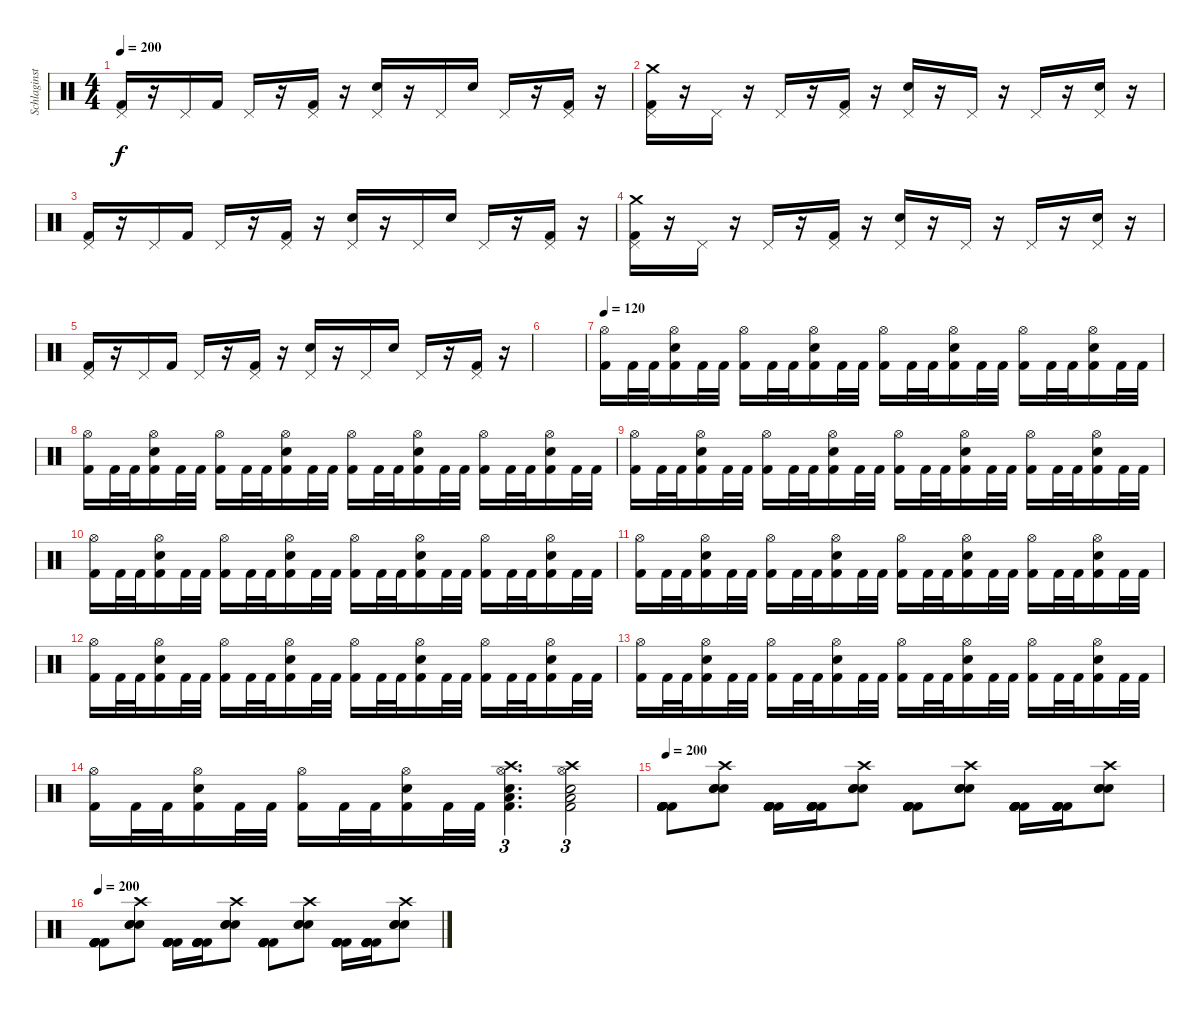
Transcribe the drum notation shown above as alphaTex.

\track ("Schlaginstrumente - Auswahl" "Schlaginst") {instrument percussion}
\staff {score}
\articulation defaults
\ts (4 4)
\tempo 200
\clef neutral
\ks c
("Pedal Hi-Hat (hit)" "Kick (hit) 2").16{dy f} r.16 "Pedal Hi-Hat (hit)".16 "Kick (hit) 2".16 "Pedal Hi-Hat (hit)".16 r.16 ("Pedal Hi-Hat (hit)" "Kick (hit) 2").16 r.16 ("Pedal Hi-Hat (hit)" "Electric Snare (hit)").16 r.16 "Pedal Hi-Hat (hit)".16 "Electric Snare (hit)".16 "Pedal Hi-Hat (hit)".16 r.16 ("Pedal Hi-Hat (hit)" "Kick (hit) 2").16 r.16 |
("Crash medium (hit)" "Pedal Hi-Hat (hit)" "Kick (hit) 2").16 r.16 "Pedal Hi-Hat (hit)".16 r.16 "Pedal Hi-Hat (hit)".16 r.16 ("Pedal Hi-Hat (hit)" "Kick (hit) 2").16 r.16 ("Pedal Hi-Hat (hit)" "Electric Snare (hit)").16 r.16 "Pedal Hi-Hat (hit)".16 r.16 "Pedal Hi-Hat (hit)".16 r.16 ("Pedal Hi-Hat (hit)" "Electric Snare (hit)").16 r.16 |
("Pedal Hi-Hat (hit)" "Kick (hit) 2").16 r.16 "Pedal Hi-Hat (hit)".16 "Kick (hit) 2".16 "Pedal Hi-Hat (hit)".16 r.16 ("Pedal Hi-Hat (hit)" "Kick (hit) 2").16 r.16 ("Pedal Hi-Hat (hit)" "Electric Snare (hit)").16 r.16 "Pedal Hi-Hat (hit)".16 "Electric Snare (hit)".16 "Pedal Hi-Hat (hit)".16 r.16 ("Pedal Hi-Hat (hit)" "Kick (hit) 2").16 r.16 |
("Crash medium (hit)" "Pedal Hi-Hat (hit)" "Kick (hit) 2").16 r.16 "Pedal Hi-Hat (hit)".16 r.16 "Pedal Hi-Hat (hit)".16 r.16 ("Pedal Hi-Hat (hit)" "Kick (hit) 2").16 r.16 ("Pedal Hi-Hat (hit)" "Electric Snare (hit)").16 r.16 "Pedal Hi-Hat (hit)".16 r.16 "Pedal Hi-Hat (hit)".16 r.16 ("Pedal Hi-Hat (hit)" "Electric Snare (hit)").16 r.16 |
("Pedal Hi-Hat (hit)" "Kick (hit) 2").16 r.16 "Pedal Hi-Hat (hit)".16 "Kick (hit) 2".16 "Pedal Hi-Hat (hit)".16 r.16 ("Pedal Hi-Hat (hit)" "Kick (hit) 2").16 r.16 ("Pedal Hi-Hat (hit)" "Electric Snare (hit)").16 r.16 "Pedal Hi-Hat (hit)".16 "Electric Snare (hit)".16 "Pedal Hi-Hat (hit)".16 r.16 ("Pedal Hi-Hat (hit)" "Kick (hit) 2").16 r.16 |
|
\tempo 120
("Hi-Hat (open)" "Kick (hit) 2").16 "Kick (hit) 2".32 "Kick (hit) 2".32 ("Hi-Hat (open)" "Electric Snare (hit)" "Kick (hit) 2").16 "Kick (hit) 2".32 "Kick (hit) 2".32 ("Hi-Hat (open)" "Kick (hit) 2").16 "Kick (hit) 2".32 "Kick (hit) 2".32 ("Hi-Hat (open)" "Electric Snare (hit)" "Kick (hit) 2").16 "Kick (hit) 2".32 "Kick (hit) 2".32 ("Hi-Hat (open)" "Kick (hit) 2").16 "Kick (hit) 2".32 "Kick (hit) 2".32 ("Hi-Hat (open)" "Electric Snare (hit)" "Kick (hit) 2").16 "Kick (hit) 2".32 "Kick (hit) 2".32 ("Hi-Hat (open)" "Kick (hit) 2").16 "Kick (hit) 2".32 "Kick (hit) 2".32 ("Hi-Hat (open)" "Electric Snare (hit)" "Kick (hit) 2").16 "Kick (hit) 2".32 "Kick (hit) 2".32 |
("Hi-Hat (open)" "Kick (hit) 2").16 "Kick (hit) 2".32 "Kick (hit) 2".32 ("Hi-Hat (open)" "Electric Snare (hit)" "Kick (hit) 2").16 "Kick (hit) 2".32 "Kick (hit) 2".32 ("Hi-Hat (open)" "Kick (hit) 2").16 "Kick (hit) 2".32 "Kick (hit) 2".32 ("Hi-Hat (open)" "Electric Snare (hit)" "Kick (hit) 2").16 "Kick (hit) 2".32 "Kick (hit) 2".32 ("Hi-Hat (open)" "Kick (hit) 2").16 "Kick (hit) 2".32 "Kick (hit) 2".32 ("Hi-Hat (open)" "Electric Snare (hit)" "Kick (hit) 2").16 "Kick (hit) 2".32 "Kick (hit) 2".32 ("Hi-Hat (open)" "Kick (hit) 2").16 "Kick (hit) 2".32 "Kick (hit) 2".32 ("Hi-Hat (open)" "Electric Snare (hit)" "Kick (hit) 2").16 "Kick (hit) 2".32 "Kick (hit) 2".32 |
("Hi-Hat (open)" "Kick (hit) 2").16 "Kick (hit) 2".32 "Kick (hit) 2".32 ("Hi-Hat (open)" "Electric Snare (hit)" "Kick (hit) 2").16 "Kick (hit) 2".32 "Kick (hit) 2".32 ("Hi-Hat (open)" "Kick (hit) 2").16 "Kick (hit) 2".32 "Kick (hit) 2".32 ("Hi-Hat (open)" "Electric Snare (hit)" "Kick (hit) 2").16 "Kick (hit) 2".32 "Kick (hit) 2".32 ("Hi-Hat (open)" "Kick (hit) 2").16 "Kick (hit) 2".32 "Kick (hit) 2".32 ("Hi-Hat (open)" "Electric Snare (hit)" "Kick (hit) 2").16 "Kick (hit) 2".32 "Kick (hit) 2".32 ("Hi-Hat (open)" "Kick (hit) 2").16 "Kick (hit) 2".32 "Kick (hit) 2".32 ("Hi-Hat (open)" "Electric Snare (hit)" "Kick (hit) 2").16 "Kick (hit) 2".32 "Kick (hit) 2".32 |
("Hi-Hat (open)" "Kick (hit) 2").16 "Kick (hit) 2".32 "Kick (hit) 2".32 ("Hi-Hat (open)" "Electric Snare (hit)" "Kick (hit) 2").16 "Kick (hit) 2".32 "Kick (hit) 2".32 ("Hi-Hat (open)" "Kick (hit) 2").16 "Kick (hit) 2".32 "Kick (hit) 2".32 ("Hi-Hat (open)" "Electric Snare (hit)" "Kick (hit) 2").16 "Kick (hit) 2".32 "Kick (hit) 2".32 ("Hi-Hat (open)" "Kick (hit) 2").16 "Kick (hit) 2".32 "Kick (hit) 2".32 ("Hi-Hat (open)" "Electric Snare (hit)" "Kick (hit) 2").16 "Kick (hit) 2".32 "Kick (hit) 2".32 ("Hi-Hat (open)" "Kick (hit) 2").16 "Kick (hit) 2".32 "Kick (hit) 2".32 ("Hi-Hat (open)" "Electric Snare (hit)" "Kick (hit) 2").16 "Kick (hit) 2".32 "Kick (hit) 2".32 |
("Hi-Hat (open)" "Kick (hit) 2").16 "Kick (hit) 2".32 "Kick (hit) 2".32 ("Hi-Hat (open)" "Electric Snare (hit)" "Kick (hit) 2").16 "Kick (hit) 2".32 "Kick (hit) 2".32 ("Hi-Hat (open)" "Kick (hit) 2").16 "Kick (hit) 2".32 "Kick (hit) 2".32 ("Hi-Hat (open)" "Electric Snare (hit)" "Kick (hit) 2").16 "Kick (hit) 2".32 "Kick (hit) 2".32 ("Hi-Hat (open)" "Kick (hit) 2").16 "Kick (hit) 2".32 "Kick (hit) 2".32 ("Hi-Hat (open)" "Electric Snare (hit)" "Kick (hit) 2").16 "Kick (hit) 2".32 "Kick (hit) 2".32 ("Hi-Hat (open)" "Kick (hit) 2").16 "Kick (hit) 2".32 "Kick (hit) 2".32 ("Hi-Hat (open)" "Electric Snare (hit)" "Kick (hit) 2").16 "Kick (hit) 2".32 "Kick (hit) 2".32 |
("Hi-Hat (open)" "Kick (hit) 2").16 "Kick (hit) 2".32 "Kick (hit) 2".32 ("Hi-Hat (open)" "Electric Snare (hit)" "Kick (hit) 2").16 "Kick (hit) 2".32 "Kick (hit) 2".32 ("Hi-Hat (open)" "Kick (hit) 2").16 "Kick (hit) 2".32 "Kick (hit) 2".32 ("Hi-Hat (open)" "Electric Snare (hit)" "Kick (hit) 2").16 "Kick (hit) 2".32 "Kick (hit) 2".32 ("Hi-Hat (open)" "Kick (hit) 2").16 "Kick (hit) 2".32 "Kick (hit) 2".32 ("Hi-Hat (open)" "Electric Snare (hit)" "Kick (hit) 2").16 "Kick (hit) 2".32 "Kick (hit) 2".32 ("Hi-Hat (open)" "Kick (hit) 2").16 "Kick (hit) 2".32 "Kick (hit) 2".32 ("Hi-Hat (open)" "Electric Snare (hit)" "Kick (hit) 2").16 "Kick (hit) 2".32 "Kick (hit) 2".32 |
("Hi-Hat (open)" "Kick (hit) 2").16 "Kick (hit) 2".32 "Kick (hit) 2".32 ("Hi-Hat (open)" "Electric Snare (hit)" "Kick (hit) 2").16 "Kick (hit) 2".32 "Kick (hit) 2".32 ("Hi-Hat (open)" "Kick (hit) 2").16 "Kick (hit) 2".32 "Kick (hit) 2".32 ("Hi-Hat (open)" "Electric Snare (hit)" "Kick (hit) 2").16 "Kick (hit) 2".32 "Kick (hit) 2".32 ("Hi-Hat (open)" "Kick (hit) 2").16 "Kick (hit) 2".32 "Kick (hit) 2".32 ("Hi-Hat (open)" "Electric Snare (hit)" "Kick (hit) 2").16 "Kick (hit) 2".32 "Kick (hit) 2".32 ("Hi-Hat (open)" "Kick (hit) 2").16 "Kick (hit) 2".32 "Kick (hit) 2".32 ("Hi-Hat (open)" "Electric Snare (hit)" "Kick (hit) 2").16 "Kick (hit) 2".32 "Kick (hit) 2".32 |
("Hi-Hat (open)" "Kick (hit) 2").16 "Kick (hit) 2".32 "Kick (hit) 2".32 ("Hi-Hat (open)" "Electric Snare (hit)" "Kick (hit) 2").16 "Kick (hit) 2".32 "Kick (hit) 2".32 ("Hi-Hat (open)" "Kick (hit) 2").16 "Kick (hit) 2".32 "Kick (hit) 2".32 ("Hi-Hat (open)" "Electric Snare (hit)" "Kick (hit) 2").16 "Kick (hit) 2".32 "Kick (hit) 2".32 ("Low Floor Tom (hit)" "Kick (hit) 2" "Snare (hit)" "Crash high (hit)" "Hi-Hat (open)").4{d tu (3 2)} ("Low Floor Tom (hit)" "Kick (hit) 2" "Snare (hit)" "Crash high (hit)" "Hi-Hat (open)").2{tu (3 2)} |
\tempo 200
("Kick (hit) 2" "Kick (hit) 2" "Kick (hit) 2" "Kick (hit) 2" "Kick (hit) 2" "Kick (hit) 2").8 ("Electric Snare (hit)" "Electric Snare (hit)" "Electric Snare (hit)" "Crash high (hit)").8 ("Kick (hit) 2" "Kick (hit) 2" "Kick (hit) 2" "Kick (hit) 2" "Kick (hit) 2" "Kick (hit) 2").16 ("Kick (hit) 2" "Kick (hit) 2" "Kick (hit) 2" "Kick (hit) 2" "Kick (hit) 2" "Kick (hit) 2").16 ("Electric Snare (hit)" "Electric Snare (hit)" "Electric Snare (hit)" "Crash high (hit)").8 ("Kick (hit) 2" "Kick (hit) 2" "Kick (hit) 2" "Kick (hit) 2" "Kick (hit) 2" "Kick (hit) 2").8 ("Electric Snare (hit)" "Electric Snare (hit)" "Electric Snare (hit)" "Crash high (hit)").8 ("Kick (hit) 2" "Kick (hit) 2" "Kick (hit) 2" "Kick (hit) 2" "Kick (hit) 2" "Kick (hit) 2").16 ("Kick (hit) 2" "Kick (hit) 2" "Kick (hit) 2" "Kick (hit) 2" "Kick (hit) 2" "Kick (hit) 2").16 ("Electric Snare (hit)" "Electric Snare (hit)" "Electric Snare (hit)" "Crash high (hit)").8 |
\tempo 200
("Kick (hit) 2" "Kick (hit) 2" "Kick (hit) 2" "Kick (hit) 2" "Kick (hit) 2" "Kick (hit) 2").8 ("Electric Snare (hit)" "Electric Snare (hit)" "Electric Snare (hit)" "Crash high (hit)").8 ("Kick (hit) 2" "Kick (hit) 2" "Kick (hit) 2" "Kick (hit) 2" "Kick (hit) 2" "Kick (hit) 2").16 ("Kick (hit) 2" "Kick (hit) 2" "Kick (hit) 2" "Kick (hit) 2" "Kick (hit) 2" "Kick (hit) 2").16 ("Electric Snare (hit)" "Electric Snare (hit)" "Electric Snare (hit)" "Crash high (hit)").8 ("Kick (hit) 2" "Kick (hit) 2" "Kick (hit) 2" "Kick (hit) 2" "Kick (hit) 2" "Kick (hit) 2").8 ("Electric Snare (hit)" "Electric Snare (hit)" "Electric Snare (hit)" "Crash high (hit)").8 ("Kick (hit) 2" "Kick (hit) 2" "Kick (hit) 2" "Kick (hit) 2" "Kick (hit) 2" "Kick (hit) 2").16 ("Kick (hit) 2" "Kick (hit) 2" "Kick (hit) 2" "Kick (hit) 2" "Kick (hit) 2" "Kick (hit) 2").16 ("Electric Snare (hit)" "Electric Snare (hit)" "Electric Snare (hit)" "Crash high (hit)").8
